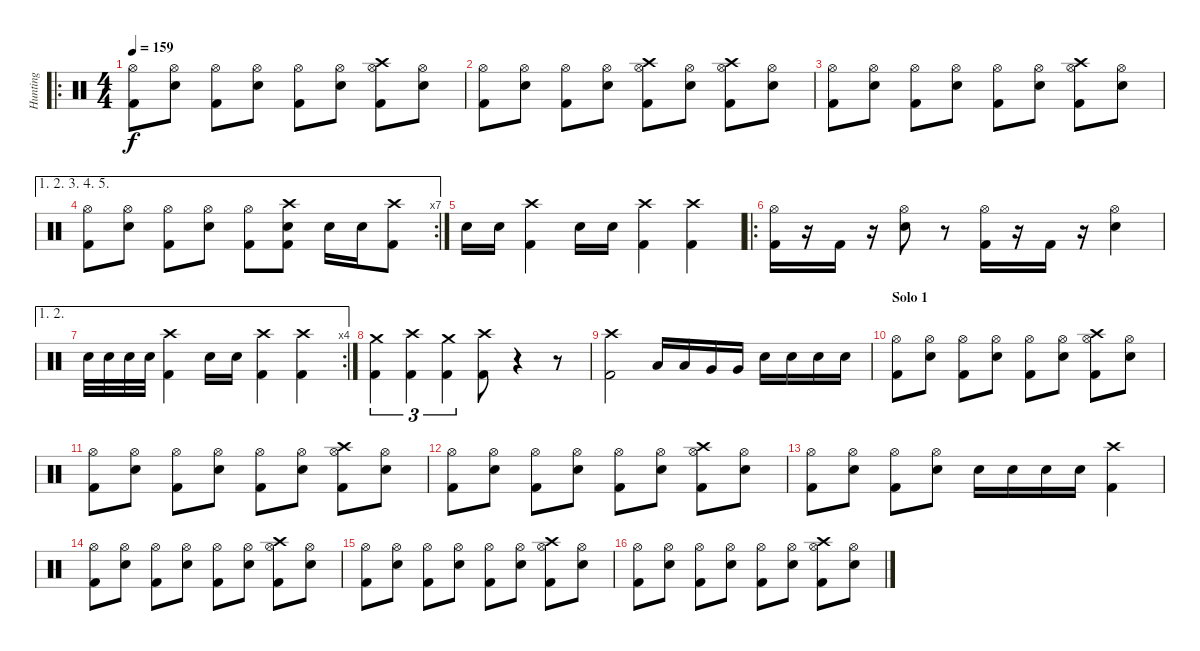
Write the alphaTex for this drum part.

\track ("Hunting" "Hunting") {instrument percussion}
\staff {score}
\articulation defaults
\ro
\ts (4 4)
\tempo 159
\clef neutral
\ks c
("Hi-Hat (open)" "Kick (hit) 2").8{dy f} ("Hi-Hat (open)" "Snare (hit) 2").8 ("Hi-Hat (open)" "Kick (hit) 2").8 ("Hi-Hat (open)" "Snare (hit) 2").8 ("Hi-Hat (open)" "Kick (hit) 2").8 ("Hi-Hat (open)" "Snare (hit) 2").8 ("Crash high (hit)" "Hi-Hat (open)" "Kick (hit) 2").8 ("Hi-Hat (open)" "Snare (hit) 2").8 |
("Hi-Hat (open)" "Kick (hit) 2").8 ("Hi-Hat (open)" "Snare (hit) 2").8 ("Hi-Hat (open)" "Kick (hit) 2").8 ("Hi-Hat (open)" "Snare (hit) 2").8 ("Crash high (hit)" "Hi-Hat (open)" "Kick (hit) 2").8 ("Hi-Hat (open)" "Snare (hit) 2").8 ("Crash high (hit)" "Hi-Hat (open)" "Kick (hit) 2").8 ("Hi-Hat (open)" "Snare (hit) 2").8 |
("Hi-Hat (open)" "Kick (hit) 2").8 ("Hi-Hat (open)" "Snare (hit) 2").8 ("Hi-Hat (open)" "Kick (hit) 2").8 ("Hi-Hat (open)" "Snare (hit) 2").8 ("Hi-Hat (open)" "Kick (hit) 2").8 ("Hi-Hat (open)" "Snare (hit) 2").8 ("Crash high (hit)" "Hi-Hat (open)" "Kick (hit) 2").8 ("Hi-Hat (open)" "Snare (hit) 2").8 |
\ae (1 2 3 4 5)
\rc 7
("Hi-Hat (open)" "Kick (hit) 2").8 ("Hi-Hat (open)" "Snare (hit) 2").8 ("Hi-Hat (open)" "Kick (hit) 2").8 ("Hi-Hat (open)" "Snare (hit) 2").8 ("Hi-Hat (open)" "Kick (hit) 2").8 ("Crash high (hit)" "Snare (hit) 2" "Kick (hit) 2").8 "Snare (hit) 2".16 "Snare (hit) 2".16 ("Crash high (hit)" "Kick (hit) 2").8 |
"Snare (hit) 2".16 "Snare (hit) 2".16 ("Crash high (hit)" "Kick (hit) 2").4 "Snare (hit) 2".16 "Snare (hit) 2".16 ("Crash high (hit)" "Kick (hit) 2").4 ("Crash high (hit)" "Kick (hit) 2").4 |
\ro
("Hi-Hat (open)" "Kick (hit) 2").16 r.16 "Kick (hit) 2".16 r.16 ("Hi-Hat (open)" "Snare (hit) 2").8 r.8 ("Hi-Hat (open)" "Kick (hit) 2").16 r.16 "Kick (hit) 2".16 r.16 ("Hi-Hat (open)" "Snare (hit) 2").4 |
\ae (1 2)
\rc 4 "Snare (hit) 2".32 "Snare (hit) 2".32 "Snare (hit) 2".32 "Snare (hit) 2".32
("Crash high (hit)" "Kick (hit) 2").4 "Snare (hit) 2".16 "Snare (hit) 2".16 ("Crash high (hit)" "Kick (hit) 2").4 ("Crash high (hit)" "Kick (hit) 2").4 |
("Crash medium (hit)" "Kick (hit) 2").4{tu (3 2)} ("Crash high (hit)" "Kick (hit) 2").4{tu (3 2)} ("Crash medium (hit)" "Kick (hit) 2").4{tu (3 2)} ("Crash high (hit)" "Kick (hit) 2").8 r.4 r.8 |
("Crash high (hit)" "Kick (hit) 2").2 "Low Tom (hit)".16 "Low Tom (hit)".16 "Very Low Tom (hit)".16 "Very Low Tom (hit)".16 "Snare (hit) 2".16 "Snare (hit) 2".16 "Snare (hit) 2".16 "Snare (hit) 2".16 |
\section ("" "Solo 1")
("Hi-Hat (open)" "Kick (hit) 2").8 ("Hi-Hat (open)" "Snare (hit) 2").8 ("Hi-Hat (open)" "Kick (hit) 2").8 ("Hi-Hat (open)" "Snare (hit) 2").8 ("Hi-Hat (open)" "Kick (hit) 2").8 ("Hi-Hat (open)" "Snare (hit) 2").8 ("Crash high (hit)" "Hi-Hat (open)" "Kick (hit) 2").8 ("Hi-Hat (open)" "Snare (hit) 2").8 |
("Hi-Hat (open)" "Kick (hit) 2").8 ("Hi-Hat (open)" "Snare (hit) 2").8 ("Hi-Hat (open)" "Kick (hit) 2").8 ("Hi-Hat (open)" "Snare (hit) 2").8 ("Hi-Hat (open)" "Kick (hit) 2").8 ("Hi-Hat (open)" "Snare (hit) 2").8 ("Crash high (hit)" "Hi-Hat (open)" "Kick (hit) 2").8 ("Hi-Hat (open)" "Snare (hit) 2").8 |
("Hi-Hat (open)" "Kick (hit) 2").8 ("Hi-Hat (open)" "Snare (hit) 2").8 ("Hi-Hat (open)" "Kick (hit) 2").8 ("Hi-Hat (open)" "Snare (hit) 2").8 ("Hi-Hat (open)" "Kick (hit) 2").8 ("Hi-Hat (open)" "Snare (hit) 2").8 ("Crash high (hit)" "Hi-Hat (open)" "Kick (hit) 2").8 ("Hi-Hat (open)" "Snare (hit) 2").8 |
("Hi-Hat (open)" "Kick (hit) 2").8 ("Hi-Hat (open)" "Snare (hit) 2").8 ("Hi-Hat (open)" "Kick (hit) 2").8 ("Hi-Hat (open)" "Snare (hit) 2").8 "Snare (hit) 2".16 "Snare (hit) 2".16 "Snare (hit) 2".16 "Snare (hit) 2".16 ("Crash high (hit)" "Kick (hit) 2").4 |
("Hi-Hat (open)" "Kick (hit) 2").8 ("Hi-Hat (open)" "Snare (hit) 2").8 ("Hi-Hat (open)" "Kick (hit) 2").8 ("Hi-Hat (open)" "Snare (hit) 2").8 ("Hi-Hat (open)" "Kick (hit) 2").8 ("Hi-Hat (open)" "Snare (hit) 2").8 ("Crash high (hit)" "Hi-Hat (open)" "Kick (hit) 2").8 ("Hi-Hat (open)" "Snare (hit) 2").8 |
("Hi-Hat (open)" "Kick (hit) 2").8 ("Hi-Hat (open)" "Snare (hit) 2").8 ("Hi-Hat (open)" "Kick (hit) 2").8 ("Hi-Hat (open)" "Snare (hit) 2").8 ("Hi-Hat (open)" "Kick (hit) 2").8 ("Hi-Hat (open)" "Snare (hit) 2").8 ("Crash high (hit)" "Hi-Hat (open)" "Kick (hit) 2").8 ("Hi-Hat (open)" "Snare (hit) 2").8 |
("Hi-Hat (open)" "Kick (hit) 2").8 ("Hi-Hat (open)" "Snare (hit) 2").8 ("Hi-Hat (open)" "Kick (hit) 2").8 ("Hi-Hat (open)" "Snare (hit) 2").8 ("Hi-Hat (open)" "Kick (hit) 2").8 ("Hi-Hat (open)" "Snare (hit) 2").8 ("Crash high (hit)" "Hi-Hat (open)" "Kick (hit) 2").8 ("Hi-Hat (open)" "Snare (hit) 2").8
